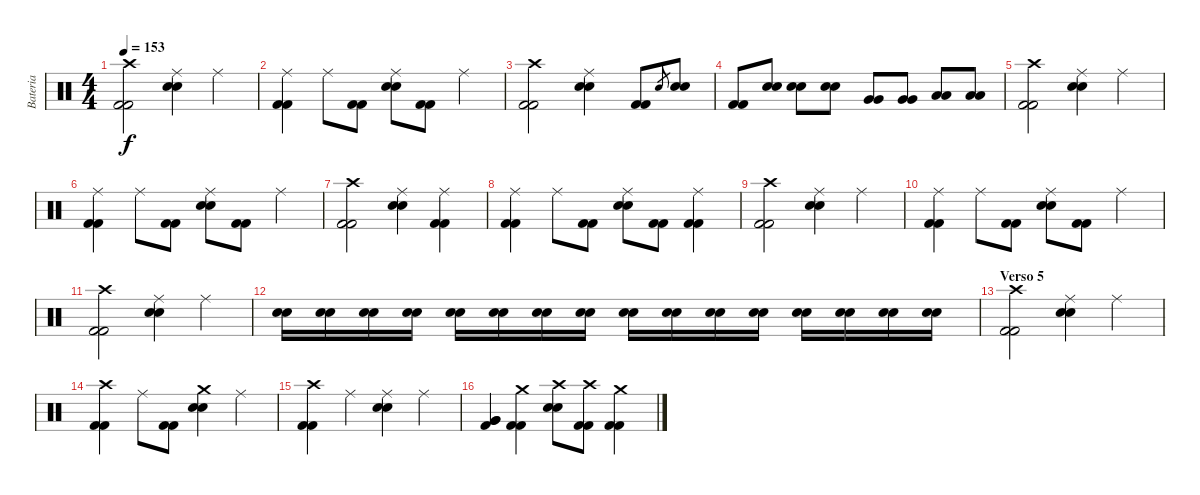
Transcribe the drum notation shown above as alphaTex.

\track ("Bateria" "Bateria") {instrument percussion}
\staff {score}
\articulation defaults
\ts (4 4)
\tempo 153
\clef neutral
\ks c
("Crash high (hit)" "Kick (hit) 2" "Kick (hit) 2").2{dy f} ("Ride (middle)" "Snare (hit) 2" "Snare (hit) 2").4 "Ride (middle)".4 |
("Ride (middle)" "Kick (hit) 2" "Kick (hit) 2").4 "Ride (middle)".8 ("Kick (hit) 2" "Kick (hit) 2").8 ("Ride (middle)" "Snare (hit) 2" "Snare (hit) 2").8 ("Kick (hit) 2" "Kick (hit) 2").8 "Ride (middle)".4 |
("Crash high (hit)" "Kick (hit) 2" "Kick (hit) 2").2 ("Ride (middle)" "Snare (hit) 2" "Snare (hit) 2").4 ("Kick (hit) 2" "Kick (hit) 2").8 "Snare (hit) 2".8{gr} ("Snare (hit) 2" "Snare (hit) 2").8 |
("Kick (hit) 2" "Kick (hit) 2").8 ("Snare (hit) 2" "Snare (hit) 2").8 ("Snare (hit) 2" "Snare (hit) 2").8 ("Snare (hit) 2" "Snare (hit) 2").8 ("Very Low Tom (hit)" "Very Low Tom (hit)").8 ("Very Low Tom (hit)" "Very Low Tom (hit)").8 ("Low Floor Tom (hit)" "Low Floor Tom (hit)").8 ("Low Floor Tom (hit)" "Low Floor Tom (hit)").8 |
("Crash high (hit)" "Kick (hit) 2" "Kick (hit) 2").2 ("Ride (middle)" "Snare (hit) 2" "Snare (hit) 2").4 "Ride (middle)".4 |
("Ride (middle)" "Kick (hit) 2" "Kick (hit) 2").4 "Ride (middle)".8 ("Kick (hit) 2" "Kick (hit) 2").8 ("Ride (middle)" "Snare (hit) 2" "Snare (hit) 2").8 ("Kick (hit) 2" "Kick (hit) 2").8 "Ride (middle)".4 |
("Crash high (hit)" "Kick (hit) 2" "Kick (hit) 2").2 ("Ride (middle)" "Snare (hit) 2" "Snare (hit) 2").4 ("Ride (middle)" "Kick (hit) 2" "Kick (hit) 2").4 |
("Ride (middle)" "Kick (hit) 2" "Kick (hit) 2").4 "Ride (middle)".8 ("Kick (hit) 2" "Kick (hit) 2").8 ("Ride (middle)" "Snare (hit) 2" "Snare (hit) 2").8 ("Kick (hit) 2" "Kick (hit) 2").8 ("Ride (middle)" "Kick (hit) 2" "Kick (hit) 2").4 |
("Crash high (hit)" "Kick (hit) 2" "Kick (hit) 2").2 ("Ride (middle)" "Snare (hit) 2" "Snare (hit) 2").4 "Ride (middle)".4 |
("Ride (middle)" "Kick (hit) 2" "Kick (hit) 2").4 "Ride (middle)".8 ("Kick (hit) 2" "Kick (hit) 2").8 ("Ride (middle)" "Snare (hit) 2" "Snare (hit) 2").8 ("Kick (hit) 2" "Kick (hit) 2").8 "Ride (middle)".4 |
("Crash high (hit)" "Kick (hit) 2" "Kick (hit) 2").2 ("Ride (middle)" "Snare (hit) 2" "Snare (hit) 2").4 "Ride (middle)".4 |
("Snare (hit) 2" "Snare (hit) 2").16 ("Snare (hit) 2" "Snare (hit) 2").16 ("Snare (hit) 2" "Snare (hit) 2").16 ("Snare (hit) 2" "Snare (hit) 2").16 ("Snare (hit) 2" "Snare (hit) 2").16 ("Snare (hit) 2" "Snare (hit) 2").16 ("Snare (hit) 2" "Snare (hit) 2").16 ("Snare (hit) 2" "Snare (hit) 2").16 ("Snare (hit) 2" "Snare (hit) 2").16 ("Snare (hit) 2" "Snare (hit) 2").16 ("Snare (hit) 2" "Snare (hit) 2").16 ("Snare (hit) 2" "Snare (hit) 2").16 ("Snare (hit) 2" "Snare (hit) 2").16 ("Snare (hit) 2" "Snare (hit) 2").16 ("Snare (hit) 2" "Snare (hit) 2").16 ("Snare (hit) 2" "Snare (hit) 2").16 |
\section ("" "Verso 5")
("Crash high (hit)" "Kick (hit) 2" "Kick (hit) 2").2 ("Ride (middle)" "Snare (hit) 2" "Snare (hit) 2").4 "Ride (middle)".4 |
("Crash high (hit)" "Kick (hit) 2" "Kick (hit) 2").4 "Ride (middle)".8 ("Kick (hit) 2" "Kick (hit) 2").8 ("Crash medium (hit)" "Snare (hit) 2" "Snare (hit) 2").4 "Ride (middle)".4 |
("Crash high (hit)" "Kick (hit) 2" "Kick (hit) 2").4 "Ride (middle)".4 ("Ride (middle)" "Snare (hit) 2" "Snare (hit) 2").4 "Ride (middle)".4 |
("Very Low Tom (hit)" "Very Low Tom (hit)" "Kick (hit) 2").4 ("Crash medium (hit)" "Kick (hit) 2" "Kick (hit) 2").4 ("Crash high (hit)" "Snare (hit) 2" "Snare (hit) 2").8 ("Crash high (hit)" "Kick (hit) 2" "Kick (hit) 2").8 ("Crash medium (hit)" "Kick (hit) 2" "Kick (hit) 2").4
